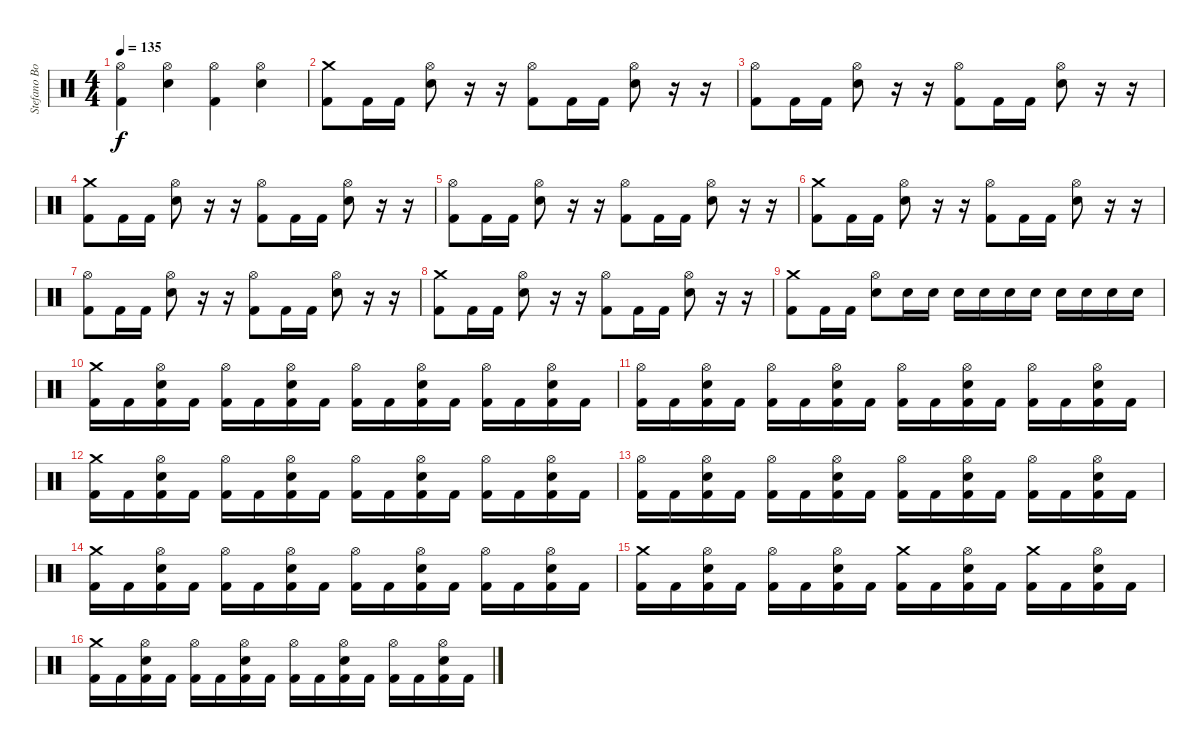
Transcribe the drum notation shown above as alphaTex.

\track ("Stefano Bonini" "Stefano Bo") {instrument percussion}
\staff {score}
\articulation defaults
\ts (4 4)
\tempo 135
\clef neutral
\ks c
("Hi-Hat (open)" "Kick (hit) 2").4{dy f} ("Hi-Hat (open)" "Electric Snare (hit)").4 ("Hi-Hat (open)" "Kick (hit) 2").4 ("Hi-Hat (open)" "Electric Snare (hit)").4 |
("Crash medium (hit)" "Kick (hit) 2").8 "Kick (hit) 2".16 "Kick (hit) 2".16 ("Hi-Hat (open)" "Electric Snare (hit)").8 r.16 r.16 ("Hi-Hat (open)" "Kick (hit) 2").8 "Kick (hit) 2".16 "Kick (hit) 2".16 ("Hi-Hat (open)" "Electric Snare (hit)").8 r.16 r.16 |
("Hi-Hat (open)" "Kick (hit) 2").8 "Kick (hit) 2".16 "Kick (hit) 2".16 ("Hi-Hat (open)" "Electric Snare (hit)").8 r.16 r.16 ("Hi-Hat (open)" "Kick (hit) 2").8 "Kick (hit) 2".16 "Kick (hit) 2".16 ("Hi-Hat (open)" "Electric Snare (hit)").8 r.16 r.16 |
("Crash medium (hit)" "Kick (hit) 2").8 "Kick (hit) 2".16 "Kick (hit) 2".16 ("Hi-Hat (open)" "Electric Snare (hit)").8 r.16 r.16 ("Hi-Hat (open)" "Kick (hit) 2").8 "Kick (hit) 2".16 "Kick (hit) 2".16 ("Hi-Hat (open)" "Electric Snare (hit)").8 r.16 r.16 |
("Hi-Hat (open)" "Kick (hit) 2").8 "Kick (hit) 2".16 "Kick (hit) 2".16 ("Hi-Hat (open)" "Electric Snare (hit)").8 r.16 r.16 ("Hi-Hat (open)" "Kick (hit) 2").8 "Kick (hit) 2".16 "Kick (hit) 2".16 ("Hi-Hat (open)" "Electric Snare (hit)").8 r.16 r.16 |
("Crash medium (hit)" "Kick (hit) 2").8 "Kick (hit) 2".16 "Kick (hit) 2".16 ("Hi-Hat (open)" "Electric Snare (hit)").8 r.16 r.16 ("Hi-Hat (open)" "Kick (hit) 2").8 "Kick (hit) 2".16 "Kick (hit) 2".16 ("Hi-Hat (open)" "Electric Snare (hit)").8 r.16 r.16 |
("Hi-Hat (open)" "Kick (hit) 2").8 "Kick (hit) 2".16 "Kick (hit) 2".16 ("Hi-Hat (open)" "Electric Snare (hit)").8 r.16 r.16 ("Hi-Hat (open)" "Kick (hit) 2").8 "Kick (hit) 2".16 "Kick (hit) 2".16 ("Hi-Hat (open)" "Electric Snare (hit)").8 r.16 r.16 |
("Crash medium (hit)" "Kick (hit) 2").8 "Kick (hit) 2".16 "Kick (hit) 2".16 ("Hi-Hat (open)" "Electric Snare (hit)").8 r.16 r.16 ("Hi-Hat (open)" "Kick (hit) 2").8 "Kick (hit) 2".16 "Kick (hit) 2".16 ("Hi-Hat (open)" "Electric Snare (hit)").8 r.16 r.16 |
("Crash medium (hit)" "Kick (hit) 2").8 "Kick (hit) 2".16 "Kick (hit) 2".16 ("Hi-Hat (open)" "Electric Snare (hit)").8 "Electric Snare (hit)".16 "Electric Snare (hit)".16 "Electric Snare (hit)".16 "Electric Snare (hit)".16 "Electric Snare (hit)".16 "Electric Snare (hit)".16 "Electric Snare (hit)".16 "Electric Snare (hit)".16 "Electric Snare (hit)".16 "Electric Snare (hit)".16 |
("Crash medium (hit)" "Kick (hit) 2").16 "Kick (hit) 2".16 ("Hi-Hat (open)" "Electric Snare (hit)" "Kick (hit) 2").16 "Kick (hit) 2".16 ("Hi-Hat (open)" "Kick (hit) 2").16 "Kick (hit) 2".16 ("Hi-Hat (open)" "Electric Snare (hit)" "Kick (hit) 2").16 "Kick (hit) 2".16 ("Hi-Hat (open)" "Kick (hit) 2").16 "Kick (hit) 2".16 ("Hi-Hat (open)" "Electric Snare (hit)" "Kick (hit) 2").16 "Kick (hit) 2".16 ("Hi-Hat (open)" "Kick (hit) 2").16 "Kick (hit) 2".16 ("Hi-Hat (open)" "Electric Snare (hit)" "Kick (hit) 2").16 "Kick (hit) 2".16 |
("Hi-Hat (open)" "Kick (hit) 2").16 "Kick (hit) 2".16 ("Hi-Hat (open)" "Electric Snare (hit)" "Kick (hit) 2").16 "Kick (hit) 2".16 ("Hi-Hat (open)" "Kick (hit) 2").16 "Kick (hit) 2".16 ("Hi-Hat (open)" "Electric Snare (hit)" "Kick (hit) 2").16 "Kick (hit) 2".16 ("Hi-Hat (open)" "Kick (hit) 2").16 "Kick (hit) 2".16 ("Hi-Hat (open)" "Electric Snare (hit)" "Kick (hit) 2").16 "Kick (hit) 2".16 ("Hi-Hat (open)" "Kick (hit) 2").16 "Kick (hit) 2".16 ("Hi-Hat (open)" "Electric Snare (hit)" "Kick (hit) 2").16 "Kick (hit) 2".16 |
("Crash medium (hit)" "Kick (hit) 2").16 "Kick (hit) 2".16 ("Hi-Hat (open)" "Electric Snare (hit)" "Kick (hit) 2").16 "Kick (hit) 2".16 ("Hi-Hat (open)" "Kick (hit) 2").16 "Kick (hit) 2".16 ("Hi-Hat (open)" "Electric Snare (hit)" "Kick (hit) 2").16 "Kick (hit) 2".16 ("Hi-Hat (open)" "Kick (hit) 2").16 "Kick (hit) 2".16 ("Hi-Hat (open)" "Electric Snare (hit)" "Kick (hit) 2").16 "Kick (hit) 2".16 ("Hi-Hat (open)" "Kick (hit) 2").16 "Kick (hit) 2".16 ("Hi-Hat (open)" "Electric Snare (hit)" "Kick (hit) 2").16 "Kick (hit) 2".16 |
("Hi-Hat (open)" "Kick (hit) 2").16 "Kick (hit) 2".16 ("Hi-Hat (open)" "Electric Snare (hit)" "Kick (hit) 2").16 "Kick (hit) 2".16 ("Hi-Hat (open)" "Kick (hit) 2").16 "Kick (hit) 2".16 ("Hi-Hat (open)" "Electric Snare (hit)" "Kick (hit) 2").16 "Kick (hit) 2".16 ("Hi-Hat (open)" "Kick (hit) 2").16 "Kick (hit) 2".16 ("Hi-Hat (open)" "Electric Snare (hit)" "Kick (hit) 2").16 "Kick (hit) 2".16 ("Hi-Hat (open)" "Kick (hit) 2").16 "Kick (hit) 2".16 ("Hi-Hat (open)" "Electric Snare (hit)" "Kick (hit) 2").16 "Kick (hit) 2".16 |
("Crash medium (hit)" "Kick (hit) 2").16 "Kick (hit) 2".16 ("Hi-Hat (open)" "Electric Snare (hit)" "Kick (hit) 2").16 "Kick (hit) 2".16 ("Hi-Hat (open)" "Kick (hit) 2").16 "Kick (hit) 2".16 ("Hi-Hat (open)" "Electric Snare (hit)" "Kick (hit) 2").16 "Kick (hit) 2".16 ("Hi-Hat (open)" "Kick (hit) 2").16 "Kick (hit) 2".16 ("Hi-Hat (open)" "Electric Snare (hit)" "Kick (hit) 2").16 "Kick (hit) 2".16 ("Hi-Hat (open)" "Kick (hit) 2").16 "Kick (hit) 2".16 ("Hi-Hat (open)" "Electric Snare (hit)" "Kick (hit) 2").16 "Kick (hit) 2".16 |
("Crash medium (hit)" "Kick (hit) 2").16 "Kick (hit) 2".16 ("Hi-Hat (open)" "Electric Snare (hit)" "Kick (hit) 2").16 "Kick (hit) 2".16 ("Hi-Hat (open)" "Kick (hit) 2").16 "Kick (hit) 2".16 ("Hi-Hat (open)" "Electric Snare (hit)" "Kick (hit) 2").16 "Kick (hit) 2".16 ("Crash medium (hit)" "Kick (hit) 2").16 "Kick (hit) 2".16 ("Hi-Hat (open)" "Electric Snare (hit)" "Kick (hit) 2").16 "Kick (hit) 2".16 ("Crash medium (hit)" "Kick (hit) 2").16 "Kick (hit) 2".16 ("Hi-Hat (open)" "Electric Snare (hit)" "Kick (hit) 2").16 "Kick (hit) 2".16 |
("Crash medium (hit)" "Kick (hit) 2").16 "Kick (hit) 2".16 ("Hi-Hat (open)" "Electric Snare (hit)" "Kick (hit) 2").16 "Kick (hit) 2".16 ("Hi-Hat (open)" "Kick (hit) 2").16 "Kick (hit) 2".16 ("Hi-Hat (open)" "Electric Snare (hit)" "Kick (hit) 2").16 "Kick (hit) 2".16 ("Hi-Hat (open)" "Kick (hit) 2").16 "Kick (hit) 2".16 ("Hi-Hat (open)" "Electric Snare (hit)" "Kick (hit) 2").16 "Kick (hit) 2".16 ("Hi-Hat (open)" "Kick (hit) 2").16 "Kick (hit) 2".16 ("Hi-Hat (open)" "Electric Snare (hit)" "Kick (hit) 2").16 "Kick (hit) 2".16
